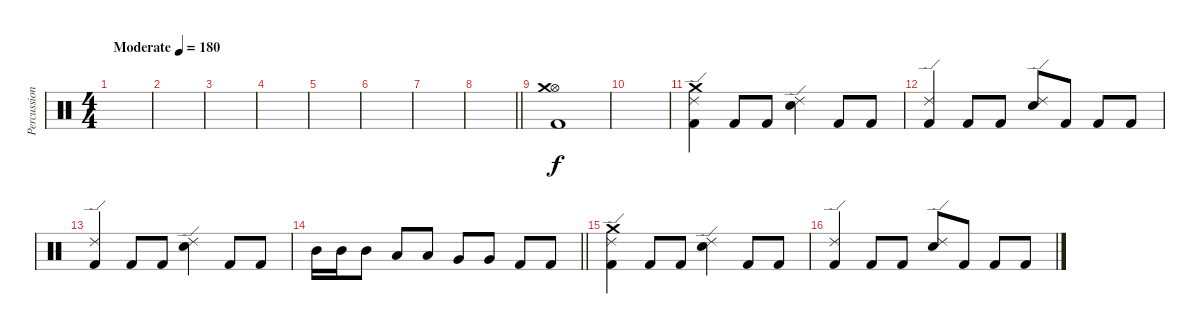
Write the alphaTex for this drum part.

\track ("Percussions" "Percussion") {instrument percussion}
\staff {score}
\articulation defaults
\ts (4 4)
\tempo (180 "Moderate")
\clef neutral
\ks c
|
|
|
|
|
|
|
\barLineRight lightlight
|
("Hi-Hat (open)" "Crash medium (hit)" "Kick (hit) 2").1 |
|
("Ride (edge) 2" "Crash medium (hit)" "Kick (hit) 2").4 "Kick (hit) 2".8 "Kick (hit) 2".8 ("Ride (edge) 2" "Electric Snare (hit)").4 "Kick (hit) 2".8 "Kick (hit) 2".8 |
("Ride (edge) 2" "Kick (hit) 2").4 "Kick (hit) 2".8 "Kick (hit) 2".8 ("Ride (edge) 2" "Electric Snare (hit)").8 "Kick (hit) 2".8 "Kick (hit) 2".8 "Kick (hit) 2".8 |
("Ride (edge) 2" "Kick (hit) 2").4 "Kick (hit) 2".8 "Kick (hit) 2".8 ("Ride (edge) 2" "Electric Snare (hit)").4 "Kick (hit) 2".8 "Kick (hit) 2".8 |
\barLineRight lightlight "Mid Tom (hit)".16 "Mid Tom (hit)".16 "Mid Tom (hit)".8 "Low Tom (hit)".8 "Low Tom (hit)".8 "Very Low Tom (hit)".8 "Very Low Tom (hit)".8 "Kick (hit) 2".8 "Kick (hit) 2".8
|
("Ride (edge) 2" "Crash medium (hit)" "Kick (hit) 2").4 "Kick (hit) 2".8 "Kick (hit) 2".8 ("Ride (edge) 2" "Electric Snare (hit)").4 "Kick (hit) 2".8 "Kick (hit) 2".8 |
("Ride (edge) 2" "Kick (hit) 2").4 "Kick (hit) 2".8 "Kick (hit) 2".8 ("Ride (edge) 2" "Electric Snare (hit)").8 "Kick (hit) 2".8 "Kick (hit) 2".8 "Kick (hit) 2".8
